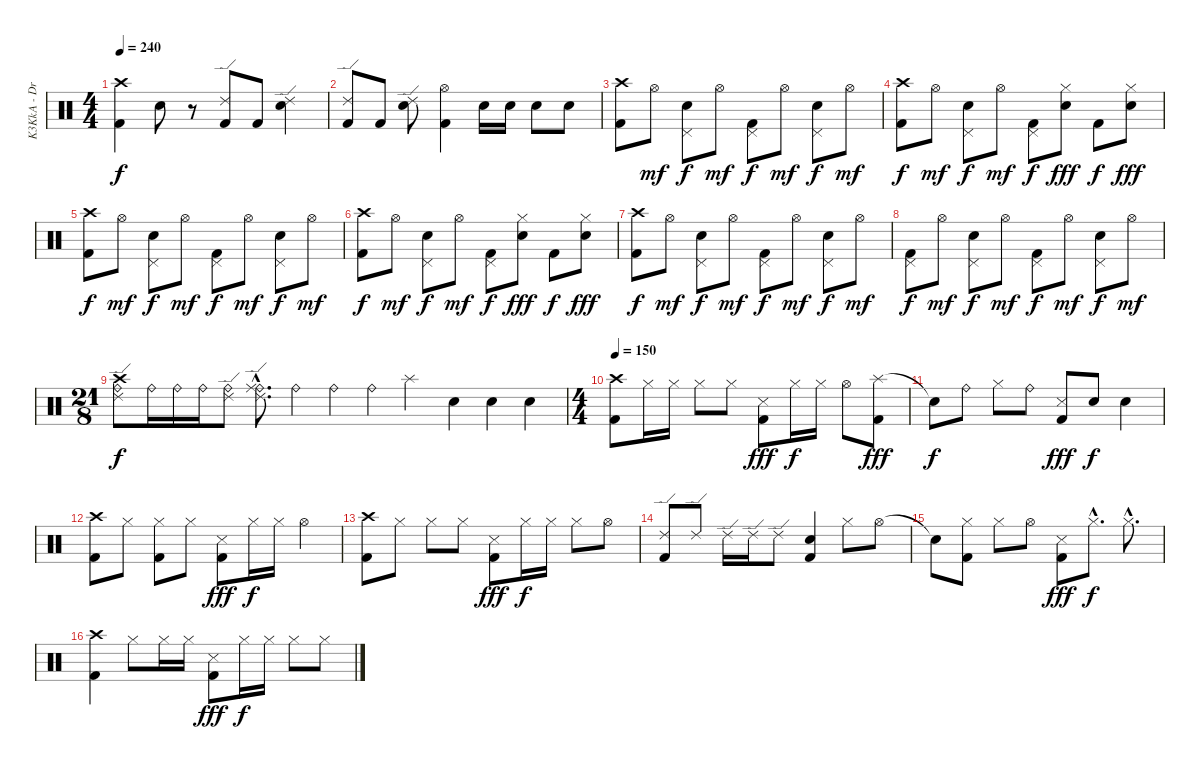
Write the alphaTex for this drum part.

\track ("K3KkA - Drums" "K3KkA - Dr") {instrument percussion}
\staff {score}
\articulation defaults
\ts (4 4)
\tempo 240
\clef neutral
\ks c
("Crash high (hit)" "Kick (hit) 2").4{dy f volume 13} "Electric Snare (hit)".8 r.8 ("Ride (edge) 2" "Kick (hit) 2").8 "Kick (hit) 2".8 ("Ride (edge) 2" "Electric Snare (hit)").4 |
("Ride (edge) 2" "Kick (hit) 2").8 "Kick (hit) 2".8 ("Ride (edge) 2" "Electric Snare (hit)").8 ("Hi-Hat (open)" "Kick (hit) 2").4 "Snare (hit) 2".16 "Snare (hit) 2".16 "Snare (hit) 2".8 "Snare (hit) 2".8 |
("Crash high (hit)" "Kick (hit) 2").8 "Hi-Hat (open)".8{dy mf} ("Pedal Hi-Hat (hit)" "Snare (hit) 2").8{dy f} "Hi-Hat (open)".8{dy mf} ("Pedal Hi-Hat (hit)" "Kick (hit) 2").8{dy f} "Hi-Hat (open)".8{dy mf} ("Pedal Hi-Hat (hit)" "Snare (hit) 2").8{dy f} "Hi-Hat (open)".8{dy mf} |
("Crash high (hit)" "Kick (hit) 2").8{dy f} "Hi-Hat (open)".8{dy mf} ("Pedal Hi-Hat (hit)" "Snare (hit) 2").8{dy f} "Hi-Hat (open)".8{dy mf} ("Pedal Hi-Hat (hit)" "Kick (hit) 2").8{dy f} ("Hi-Hat (closed)" "Snare (hit) 2").8{dy fff} "Kick (hit) 2".8{dy f} ("Hi-Hat (closed)" "Snare (hit) 2").8{dy fff} |
("Crash high (hit)" "Kick (hit) 2").8{dy f} "Hi-Hat (open)".8{dy mf} ("Pedal Hi-Hat (hit)" "Snare (hit) 2").8{dy f} "Hi-Hat (open)".8{dy mf} ("Pedal Hi-Hat (hit)" "Kick (hit) 2").8{dy f} "Hi-Hat (open)".8{dy mf} ("Pedal Hi-Hat (hit)" "Snare (hit) 2").8{dy f} "Hi-Hat (open)".8{dy mf} |
("Crash high (hit)" "Kick (hit) 2").8{dy f} "Hi-Hat (open)".8{dy mf} ("Pedal Hi-Hat (hit)" "Snare (hit) 2").8{dy f} "Hi-Hat (open)".8{dy mf} ("Pedal Hi-Hat (hit)" "Kick (hit) 2").8{dy f} ("Hi-Hat (closed)" "Snare (hit) 2").8{dy fff} "Kick (hit) 2".8{dy f} ("Hi-Hat (closed)" "Snare (hit) 2").8{dy fff} |
("Crash high (hit)" "Kick (hit) 2").8{dy f} "Hi-Hat (open)".8{dy mf} ("Pedal Hi-Hat (hit)" "Snare (hit) 2").8{dy f} "Hi-Hat (open)".8{dy mf} ("Pedal Hi-Hat (hit)" "Kick (hit) 2").8{dy f} "Hi-Hat (open)".8{dy mf} ("Pedal Hi-Hat (hit)" "Snare (hit) 2").8{dy f} "Hi-Hat (open)".8{dy mf} |
("Pedal Hi-Hat (hit)" "Kick (hit) 2").8{dy f} "Hi-Hat (open)".8{dy mf} ("Pedal Hi-Hat (hit)" "Snare (hit) 2").8{dy f} "Hi-Hat (open)".8{dy mf} ("Pedal Hi-Hat (hit)" "Kick (hit) 2").8{dy f} "Hi-Hat (open)".8{dy mf} ("Pedal Hi-Hat (hit)" "Snare (hit) 2").8{dy f} "Hi-Hat (open)".8{dy mf} |
\ts (21 8)
("Crash high (hit)" "Ride (edge) 2" "Ride (bell)").8{dy f} "Ride (bell)".16 "Ride (bell)".16 "Ride (bell)".16 ("Ride (edge) 2" "Ride (bell)").8 ("Ride (edge) 2"{hac} "Ride (bell)"{hac} "Ride (middle)"{hac}).8{d} "Ride (bell)".4 "Ride (bell)".4 "Ride (bell)".4 "Splash (hit)".2 "Snare (hit)".4 "Snare (hit)".4 "Snare (hit)".4 |
\ts (4 4)
\tempo 175
\tempo 150
("Crash high (hit)" "Kick (hit) 2").8 "Hi-Hat (closed)".16 "Hi-Hat (closed)".16 "Hi-Hat (closed)".8 "Hi-Hat (closed)".8 ("Snare (side stick) 3" "Kick (hit) 2").8{dy fff} "Hi-Hat (closed)".16{dy f} "Hi-Hat (closed)".16 "Hi-Hat (open)".8 ("Splash (hit)" "Kick (hit) 2").8{dy fff} |
"Snare (hit)"{t}.8{dy f} "Ride (bell)".8 "Hi-Hat (closed)".8 "Ride (bell)".8 ("Kick (hit) 2" "Metronome (hit)").8{dy fff} "Snare (hit) 2".8{dy f} "Snare (hit) 2".4 |
("Crash high (hit)" "Kick (hit) 2").8 "Hi-Hat (closed)".8 ("Hi-Hat (closed)" "Kick (hit) 2").8 "Hi-Hat (closed)".8 ("Metronome (hit)" "Kick (hit) 2").8{dy fff} "Hi-Hat (closed)".16{dy f} "Hi-Hat (closed)".16 "Hi-Hat (open)".4 |
("Crash high (hit)" "Kick (hit) 2").8 "Hi-Hat (closed)".8 "Hi-Hat (closed)".8 "Hi-Hat (closed)".8 ("Metronome (hit)" "Kick (hit) 2").8{dy fff} "Hi-Hat (closed)".16{dy f} "Hi-Hat (closed)".16 "Hi-Hat (closed)".8 "Hi-Hat (open)".8 |
("Ride (edge) 2" "Kick (hit) 2").8 "Ride (edge) 2".8 "Ride (edge) 2".16 "Ride (edge) 2".16 "Ride (edge) 2".8 ("Kick (hit) 2" "Electric Snare (hit)").4 "Hi-Hat (closed)".8 "Hi-Hat (open)".8 |
"Snare (hit)"{t}.8 ("Hi-Hat (closed)" "Kick (hit) 2").8 "Hi-Hat (closed)".8 "Hi-Hat (open)".8 ("Metronome (hit)" "Kick (hit) 2").8{dy fff} "Hi-Hat (closed)"{hac}.8{d dy f} "Hi-Hat (closed)"{hac}.8{d} |
("Crash high (hit)" "Kick (hit) 2").4 "Hi-Hat (closed)".8 "Hi-Hat (closed)".16 "Hi-Hat (closed)".16 ("Metronome (hit)" "Kick (hit) 2").8{dy fff} "Hi-Hat (closed)".16{dy f} "Hi-Hat (closed)".16 "Hi-Hat (closed)".8 "Hi-Hat (closed)".8
